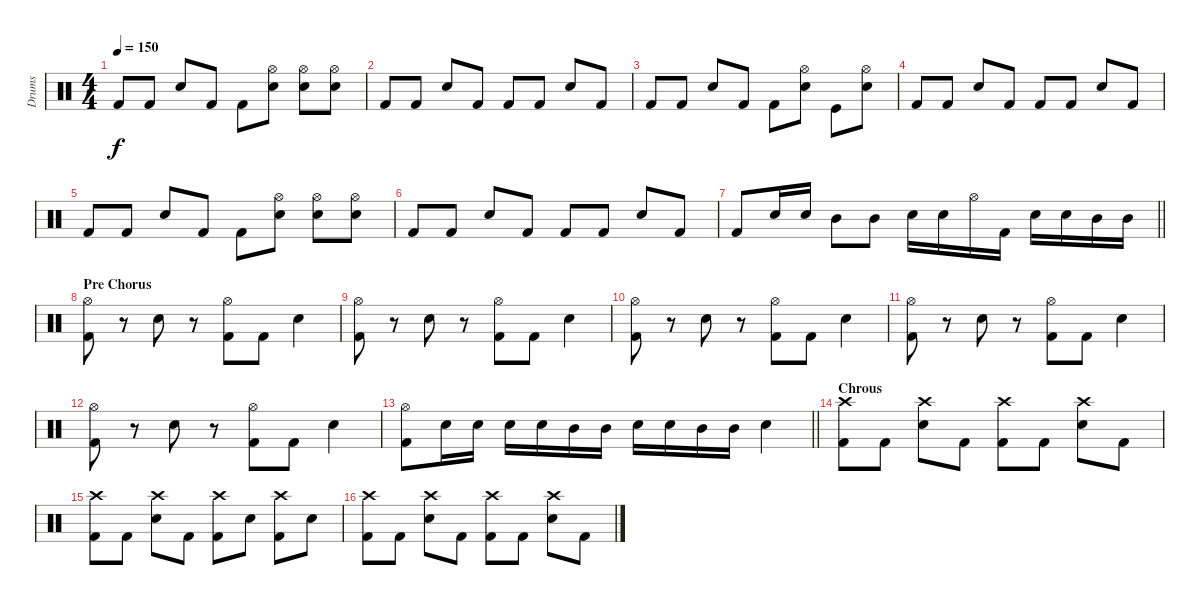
\track ("Drums" "Drums") {instrument percussion}
\staff {score}
\articulation defaults
\ts (4 4)
\tempo 150
\clef neutral
\ks c "Kick (hit) 2".8{dy f} "Kick (hit) 2".8 "Snare (hit) 2".8 "Kick (hit) 2".8 "Kick (hit) 2".8
("Hi-Hat (open)" "Snare (hit) 2").8 ("Hi-Hat (open)" "Snare (hit) 2").8 ("Hi-Hat (open)" "Snare (hit) 2").8 |
"Kick (hit) 2".8 "Kick (hit) 2".8 "Snare (hit) 2".8 "Kick (hit) 2".8 "Kick (hit) 2".8 "Kick (hit) 2".8 "Snare (hit) 2".8 "Kick (hit) 2".8 |
"Kick (hit) 2".8 "Kick (hit) 2".8 "Snare (hit) 2".8 "Kick (hit) 2".8 "Kick (hit) 2".8 ("Hi-Hat (open)" "Snare (hit) 2").8 "Kick (hit)".8 ("Hi-Hat (open)" "Snare (hit) 2").8 |
"Kick (hit) 2".8 "Kick (hit) 2".8 "Snare (hit) 2".8 "Kick (hit) 2".8 "Kick (hit) 2".8 "Kick (hit) 2".8 "Snare (hit) 2".8 "Kick (hit) 2".8 |
"Kick (hit) 2".8 "Kick (hit) 2".8 "Snare (hit) 2".8 "Kick (hit) 2".8 "Kick (hit) 2".8 ("Hi-Hat (open)" "Snare (hit) 2").8 ("Hi-Hat (open)" "Snare (hit) 2").8 ("Hi-Hat (open)" "Snare (hit) 2").8 |
"Kick (hit) 2".8 "Kick (hit) 2".8 "Snare (hit) 2".8 "Kick (hit) 2".8 "Kick (hit) 2".8 "Kick (hit) 2".8 "Snare (hit) 2".8 "Kick (hit) 2".8 |
\barLineRight lightlight "Kick (hit) 2".8 "Snare (hit) 2".16 "Snare (hit) 2".16 "Mid Tom (hit)".8 "Mid Tom (hit)".8 "Snare (hit) 2".16 "Snare (hit) 2".16 "Hi-Hat (open)".16 "Kick (hit) 2".16 "Snare (hit) 2".16 "Snare (hit) 2".16 "Mid Tom (hit)".16 "Mid Tom (hit)".16
|
\section ("" "Pre Chorus")
("Kick (hit) 2" "Hi-Hat (open)").8 r.8 "Snare (hit) 2".8 r.8 ("Kick (hit) 2" "Hi-Hat (open)").8 "Kick (hit) 2".8 "Snare (hit) 2".4 |
("Kick (hit) 2" "Hi-Hat (open)").8 r.8 "Snare (hit) 2".8 r.8 ("Kick (hit) 2" "Hi-Hat (open)").8 "Kick (hit) 2".8 "Snare (hit) 2".4 |
("Kick (hit) 2" "Hi-Hat (open)").8 r.8 "Snare (hit) 2".8 r.8 ("Kick (hit) 2" "Hi-Hat (open)").8 "Kick (hit) 2".8 "Snare (hit) 2".4 |
("Kick (hit) 2" "Hi-Hat (open)").8 r.8 "Snare (hit) 2".8 r.8 ("Kick (hit) 2" "Hi-Hat (open)").8 "Kick (hit) 2".8 "Snare (hit) 2".4 |
("Kick (hit) 2" "Hi-Hat (open)").8 r.8 "Snare (hit) 2".8 r.8 ("Kick (hit) 2" "Hi-Hat (open)").8 "Kick (hit) 2".8 "Snare (hit) 2".4 |
\barLineRight lightlight
("Kick (hit) 2" "Hi-Hat (open)").8 "Snare (hit) 2".16 "Snare (hit) 2".16 "Snare (hit) 2".16 "Snare (hit) 2".16 "Mid Tom (hit)".16 "Mid Tom (hit)".16 "Snare (hit) 2".16 "Snare (hit) 2".16 "Mid Tom (hit)".16 "Mid Tom (hit)".16 "Snare (hit) 2".4 |
\section ("" "Chrous")
("Kick (hit) 2" "Crash high (hit)").8 "Kick (hit) 2".8 ("Snare (hit) 2" "Crash high (hit)").8 "Kick (hit) 2".8 ("Kick (hit) 2" "Crash high (hit)").8 "Kick (hit) 2".8 ("Snare (hit) 2" "Crash high (hit)").8 "Kick (hit) 2".8 |
("Kick (hit) 2" "Crash high (hit)").8 "Kick (hit) 2".8 ("Snare (hit) 2" "Crash high (hit)").8 "Kick (hit) 2".8 ("Kick (hit) 2" "Crash high (hit)").8 "Snare (hit) 2".8 ("Kick (hit) 2" "Crash high (hit)").8 "Snare (hit) 2".8 |
("Kick (hit) 2" "Crash high (hit)").8 "Kick (hit) 2".8 ("Snare (hit) 2" "Crash high (hit)").8 "Kick (hit) 2".8 ("Kick (hit) 2" "Crash high (hit)").8 "Kick (hit) 2".8 ("Snare (hit) 2" "Crash high (hit)").8 "Kick (hit) 2".8
